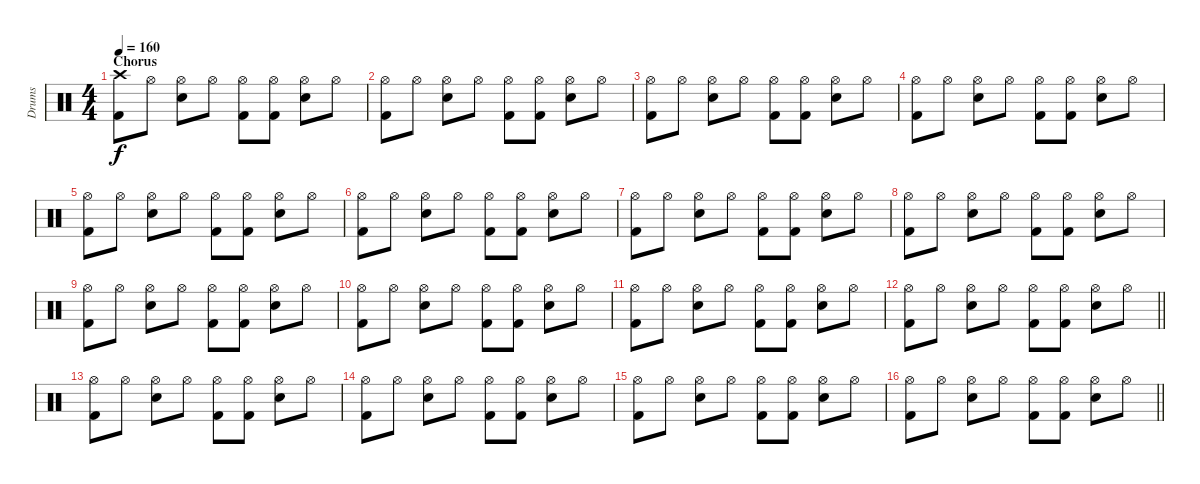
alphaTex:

\track ("Drums" "Drums") {instrument percussion}
\staff {score}
\articulation defaults
\ts (4 4)
\section ("" "Chorus")
\tempo 160
\clef neutral
\ks c
("Crash high (hit)" "Kick (hit) 2").8{dy f} "Hi-Hat (open)".8 ("Hi-Hat (open)" "Snare (hit) 2").8 "Hi-Hat (open)".8 ("Hi-Hat (open)" "Kick (hit) 2").8 ("Hi-Hat (open)" "Kick (hit) 2").8 ("Hi-Hat (open)" "Snare (hit) 2").8 "Hi-Hat (open)".8 |
("Hi-Hat (open)" "Kick (hit) 2").8 "Hi-Hat (open)".8 ("Hi-Hat (open)" "Snare (hit) 2").8 "Hi-Hat (open)".8 ("Hi-Hat (open)" "Kick (hit) 2").8 ("Hi-Hat (open)" "Kick (hit) 2").8 ("Hi-Hat (open)" "Snare (hit) 2").8 "Hi-Hat (open)".8 |
("Hi-Hat (open)" "Kick (hit) 2").8 "Hi-Hat (open)".8 ("Hi-Hat (open)" "Snare (hit) 2").8 "Hi-Hat (open)".8 ("Hi-Hat (open)" "Kick (hit) 2").8 ("Hi-Hat (open)" "Kick (hit) 2").8 ("Hi-Hat (open)" "Snare (hit) 2").8 "Hi-Hat (open)".8 |
("Hi-Hat (open)" "Kick (hit) 2").8 "Hi-Hat (open)".8 ("Hi-Hat (open)" "Snare (hit) 2").8 "Hi-Hat (open)".8 ("Hi-Hat (open)" "Kick (hit) 2").8 ("Hi-Hat (open)" "Kick (hit) 2").8 ("Hi-Hat (open)" "Snare (hit) 2").8 "Hi-Hat (open)".8 |
("Hi-Hat (open)" "Kick (hit) 2").8 "Hi-Hat (open)".8 ("Hi-Hat (open)" "Snare (hit) 2").8 "Hi-Hat (open)".8 ("Hi-Hat (open)" "Kick (hit) 2").8 ("Hi-Hat (open)" "Kick (hit) 2").8 ("Hi-Hat (open)" "Snare (hit) 2").8 "Hi-Hat (open)".8 |
("Hi-Hat (open)" "Kick (hit) 2").8 "Hi-Hat (open)".8 ("Hi-Hat (open)" "Snare (hit) 2").8 "Hi-Hat (open)".8 ("Hi-Hat (open)" "Kick (hit) 2").8 ("Hi-Hat (open)" "Kick (hit) 2").8 ("Hi-Hat (open)" "Snare (hit) 2").8 "Hi-Hat (open)".8 |
("Hi-Hat (open)" "Kick (hit) 2").8 "Hi-Hat (open)".8 ("Hi-Hat (open)" "Snare (hit) 2").8 "Hi-Hat (open)".8 ("Hi-Hat (open)" "Kick (hit) 2").8 ("Hi-Hat (open)" "Kick (hit) 2").8 ("Hi-Hat (open)" "Snare (hit) 2").8 "Hi-Hat (open)".8 |
("Hi-Hat (open)" "Kick (hit) 2").8 "Hi-Hat (open)".8 ("Hi-Hat (open)" "Snare (hit) 2").8 "Hi-Hat (open)".8 ("Hi-Hat (open)" "Kick (hit) 2").8 ("Hi-Hat (open)" "Kick (hit) 2").8 ("Hi-Hat (open)" "Snare (hit) 2").8 "Hi-Hat (open)".8 |
("Hi-Hat (open)" "Kick (hit) 2").8 "Hi-Hat (open)".8 ("Hi-Hat (open)" "Snare (hit) 2").8 "Hi-Hat (open)".8 ("Hi-Hat (open)" "Kick (hit) 2").8 ("Hi-Hat (open)" "Kick (hit) 2").8 ("Hi-Hat (open)" "Snare (hit) 2").8 "Hi-Hat (open)".8 |
("Hi-Hat (open)" "Kick (hit) 2").8 "Hi-Hat (open)".8 ("Hi-Hat (open)" "Snare (hit) 2").8 "Hi-Hat (open)".8 ("Hi-Hat (open)" "Kick (hit) 2").8 ("Hi-Hat (open)" "Kick (hit) 2").8 ("Hi-Hat (open)" "Snare (hit) 2").8 "Hi-Hat (open)".8 |
("Hi-Hat (open)" "Kick (hit) 2").8 "Hi-Hat (open)".8 ("Hi-Hat (open)" "Snare (hit) 2").8 "Hi-Hat (open)".8 ("Hi-Hat (open)" "Kick (hit) 2").8 ("Hi-Hat (open)" "Kick (hit) 2").8 ("Hi-Hat (open)" "Snare (hit) 2").8 "Hi-Hat (open)".8 |
\barLineRight lightlight
("Hi-Hat (open)" "Kick (hit) 2").8 "Hi-Hat (open)".8 ("Hi-Hat (open)" "Snare (hit) 2").8 "Hi-Hat (open)".8 ("Hi-Hat (open)" "Kick (hit) 2").8 ("Hi-Hat (open)" "Kick (hit) 2").8 ("Hi-Hat (open)" "Snare (hit) 2").8 "Hi-Hat (open)".8 |
("Hi-Hat (open)" "Kick (hit) 2").8 "Hi-Hat (open)".8 ("Hi-Hat (open)" "Snare (hit) 2").8 "Hi-Hat (open)".8 ("Hi-Hat (open)" "Kick (hit) 2").8 ("Hi-Hat (open)" "Kick (hit) 2").8 ("Hi-Hat (open)" "Snare (hit) 2").8 "Hi-Hat (open)".8 |
("Hi-Hat (open)" "Kick (hit) 2").8 "Hi-Hat (open)".8 ("Hi-Hat (open)" "Snare (hit) 2").8 "Hi-Hat (open)".8 ("Hi-Hat (open)" "Kick (hit) 2").8 ("Hi-Hat (open)" "Kick (hit) 2").8 ("Hi-Hat (open)" "Snare (hit) 2").8 "Hi-Hat (open)".8 |
("Hi-Hat (open)" "Kick (hit) 2").8 "Hi-Hat (open)".8 ("Hi-Hat (open)" "Snare (hit) 2").8 "Hi-Hat (open)".8 ("Hi-Hat (open)" "Kick (hit) 2").8 ("Hi-Hat (open)" "Kick (hit) 2").8 ("Hi-Hat (open)" "Snare (hit) 2").8 "Hi-Hat (open)".8 |
\barLineRight lightlight
("Hi-Hat (open)" "Kick (hit) 2").8 "Hi-Hat (open)".8 ("Hi-Hat (open)" "Snare (hit) 2").8 "Hi-Hat (open)".8 ("Hi-Hat (open)" "Kick (hit) 2").8 ("Hi-Hat (open)" "Kick (hit) 2").8 ("Hi-Hat (open)" "Snare (hit) 2").8 "Hi-Hat (open)".8
